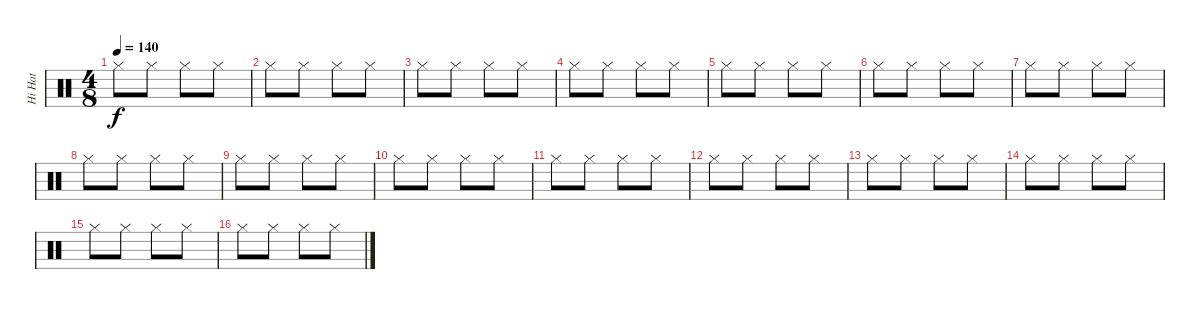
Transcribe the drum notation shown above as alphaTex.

\track ("Hi Hat" "Hi Hat") {instrument percussion}
\staff {score}
\articulation defaults
\ts (4 8)
\tempo 140
\clef neutral
\ks c "Hi-Hat (closed)".8{dy f} "Hi-Hat (closed)".8 "Hi-Hat (closed)".8 "Hi-Hat (closed)".8
|
"Hi-Hat (closed)".8 "Hi-Hat (closed)".8 "Hi-Hat (closed)".8 "Hi-Hat (closed)".8 |
"Hi-Hat (closed)".8 "Hi-Hat (closed)".8 "Hi-Hat (closed)".8 "Hi-Hat (closed)".8 |
"Hi-Hat (closed)".8 "Hi-Hat (closed)".8 "Hi-Hat (closed)".8 "Hi-Hat (closed)".8 |
"Hi-Hat (closed)".8 "Hi-Hat (closed)".8 "Hi-Hat (closed)".8 "Hi-Hat (closed)".8 |
"Hi-Hat (closed)".8 "Hi-Hat (closed)".8 "Hi-Hat (closed)".8 "Hi-Hat (closed)".8 |
"Hi-Hat (closed)".8 "Hi-Hat (closed)".8 "Hi-Hat (closed)".8 "Hi-Hat (closed)".8 |
"Hi-Hat (closed)".8 "Hi-Hat (closed)".8 "Hi-Hat (closed)".8 "Hi-Hat (closed)".8 |
"Hi-Hat (closed)".8 "Hi-Hat (closed)".8 "Hi-Hat (closed)".8 "Hi-Hat (closed)".8 |
"Hi-Hat (closed)".8 "Hi-Hat (closed)".8 "Hi-Hat (closed)".8 "Hi-Hat (closed)".8 |
"Hi-Hat (closed)".8 "Hi-Hat (closed)".8 "Hi-Hat (closed)".8 "Hi-Hat (closed)".8 |
"Hi-Hat (closed)".8 "Hi-Hat (closed)".8 "Hi-Hat (closed)".8 "Hi-Hat (closed)".8 |
"Hi-Hat (closed)".8 "Hi-Hat (closed)".8 "Hi-Hat (closed)".8 "Hi-Hat (closed)".8 |
"Hi-Hat (closed)".8 "Hi-Hat (closed)".8 "Hi-Hat (closed)".8 "Hi-Hat (closed)".8 |
"Hi-Hat (closed)".8 "Hi-Hat (closed)".8 "Hi-Hat (closed)".8 "Hi-Hat (closed)".8 |
"Hi-Hat (closed)".8 "Hi-Hat (closed)".8 "Hi-Hat (closed)".8 "Hi-Hat (closed)".8
